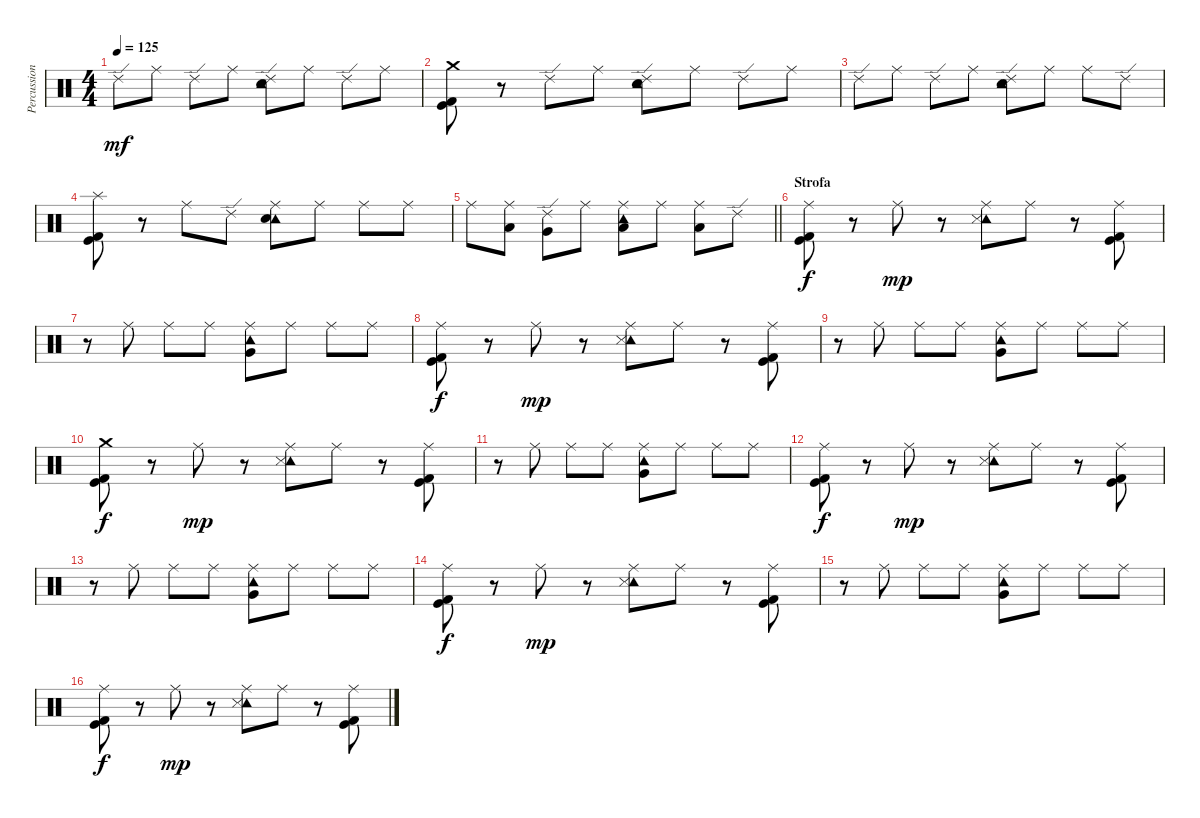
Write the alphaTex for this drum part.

\track ("Percussioni" "Percussion") {instrument percussion}
\staff {score}
\articulation defaults
\ts (4 4)
\tempo 125
\clef neutral
\ks c "Ride (edge) 2".8{dy mf} "Ride (middle)".8 "Ride (edge) 2".8 "Ride (middle)".8
("Ride (edge) 2" "Tambourine (hit)" "Electric Snare (hit)").8 "Ride (middle)".8 "Ride (edge) 2".8 "Ride (middle)".8 |
("Crash medium (hit)" "Kick (hit)" "Kick (hit) 2").8 r.8 "Ride (edge) 2".8 "Ride (middle)".8 ("Ride (edge) 2" "Tambourine (hit)" "Electric Snare (hit)").8 "Ride (middle)".8 "Ride (edge) 2".8 "Ride (middle)".8 |
"Ride (edge) 2".8 "Ride (middle)".8 "Ride (edge) 2".8 "Ride (middle)".8 ("Ride (edge) 2" "Tambourine (hit)" "Electric Snare (hit)").8 "Ride (middle)".8 "Ride (middle)".8 "Ride (edge) 2".8 |
("Splash (hit)" "Kick (hit)" "Kick (hit) 2").8 r.8 "Ride (middle)".8 "Ride (edge) 2".8 ("Ride (middle)" "Tambourine (hit)" "Electric Snare (hit)").8 "Ride (middle)".8 "Ride (middle)".8 "Ride (middle)".8 |
\barLineRight lightlight "Ride (middle)".8
("Ride (middle)" "Low Tom (hit)").8 ("Ride (edge) 2" "Very Low Tom (hit)").8 "Ride (middle)".8 ("Ride (middle)" "Low Floor Tom (hit)" "Tambourine (hit)").8 "Ride (middle)".8 ("Ride (middle)" "Low Floor Tom (hit)").8 "Ride (edge) 2".8 |
\section ("" "Strofa")
("Ride (middle)" "Kick (hit)" "Kick (hit) 2").8{dy f} r.8 "Ride (middle)".8{dy mp} r.8 ("Ride (middle)" "Tambourine (hit)" "Snare (side stick) 3").8 "Ride (middle)".8 r.8 ("Ride (middle)" "Kick (hit)" "Kick (hit) 2").8 |
r.8 "Ride (middle)".8 "Ride (middle)".8 "Ride (middle)".8 ("Ride (middle)" "Tambourine (hit)" "Very Low Tom (hit)").8 "Ride (middle)".8 "Ride (middle)".8 "Ride (middle)".8 |
("Ride (middle)" "Kick (hit)" "Kick (hit) 2").8{dy f} r.8 "Ride (middle)".8{dy mp} r.8 ("Ride (middle)" "Tambourine (hit)" "Snare (side stick) 3").8 "Ride (middle)".8 r.8 ("Ride (middle)" "Kick (hit)" "Kick (hit) 2").8 |
r.8 "Ride (middle)".8 "Ride (middle)".8 "Ride (middle)".8 ("Ride (middle)" "Tambourine (hit)" "Very Low Tom (hit)").8 "Ride (middle)".8 "Ride (middle)".8 "Ride (middle)".8 |
("Crash medium (hit)" "Kick (hit)" "Kick (hit) 2").8{dy f} r.8 "Ride (middle)".8{dy mp} r.8 ("Ride (middle)" "Tambourine (hit)" "Snare (side stick) 3").8 "Ride (middle)".8 r.8 ("Ride (middle)" "Kick (hit)" "Kick (hit) 2").8 |
r.8 "Ride (middle)".8 "Ride (middle)".8 "Ride (middle)".8 ("Ride (middle)" "Tambourine (hit)" "Very Low Tom (hit)").8 "Ride (middle)".8 "Ride (middle)".8 "Ride (middle)".8 |
("Ride (middle)" "Kick (hit)" "Kick (hit) 2").8{dy f} r.8 "Ride (middle)".8{dy mp} r.8 ("Ride (middle)" "Tambourine (hit)" "Snare (side stick) 3").8 "Ride (middle)".8 r.8 ("Ride (middle)" "Kick (hit)" "Kick (hit) 2").8 |
r.8 "Ride (middle)".8 "Ride (middle)".8 "Ride (middle)".8 ("Ride (middle)" "Tambourine (hit)" "Very Low Tom (hit)").8 "Ride (middle)".8 "Ride (middle)".8 "Ride (middle)".8 |
("Ride (middle)" "Kick (hit)" "Kick (hit) 2").8{dy f} r.8 "Ride (middle)".8{dy mp} r.8 ("Ride (middle)" "Tambourine (hit)" "Snare (side stick) 3").8 "Ride (middle)".8 r.8 ("Ride (middle)" "Kick (hit)" "Kick (hit) 2").8 |
r.8 "Ride (middle)".8 "Ride (middle)".8 "Ride (middle)".8 ("Ride (middle)" "Tambourine (hit)" "Very Low Tom (hit)").8 "Ride (middle)".8 "Ride (middle)".8 "Ride (middle)".8 |
("Ride (middle)" "Kick (hit)" "Kick (hit) 2").8{dy f} r.8 "Ride (middle)".8{dy mp} r.8 ("Ride (middle)" "Tambourine (hit)" "Snare (side stick) 3").8 "Ride (middle)".8 r.8 ("Ride (middle)" "Kick (hit)" "Kick (hit) 2").8
